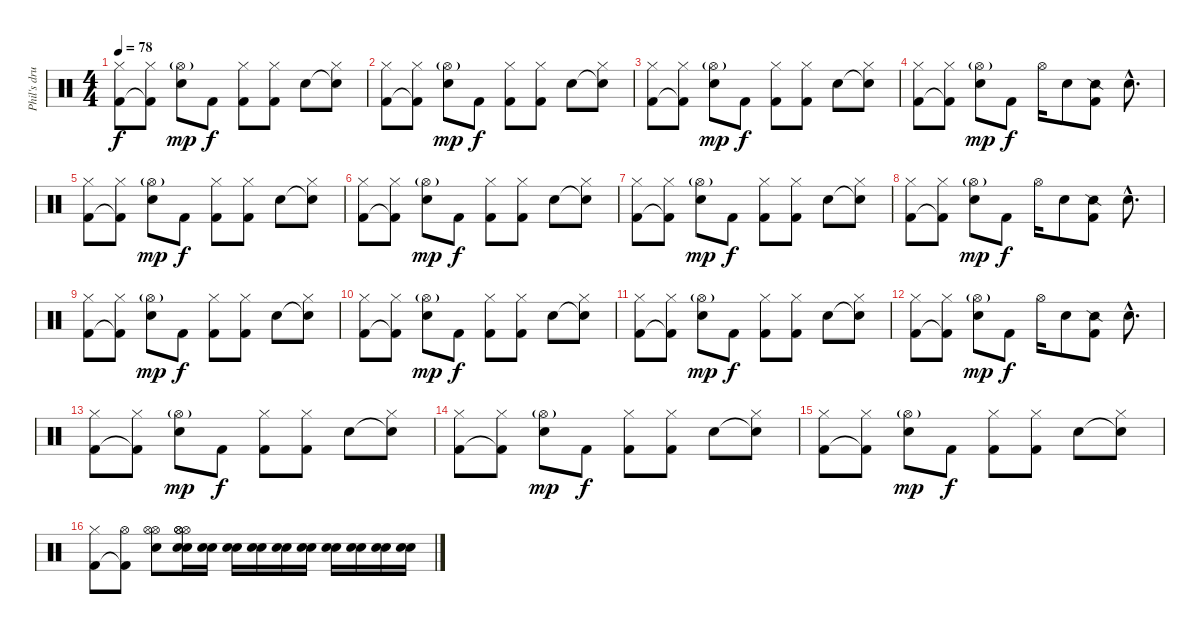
\track ("Phil's drums" "Phil's dru") {instrument percussion}
\staff {score}
\articulation defaults
\ts (4 4)
\tempo 78
\clef neutral
\ks c
("Kick (hit) 2" "Hi-Hat (closed)").8{dy f} ("Kick (hit) 2"{t} "Hi-Hat (closed)").8 ("Snare (hit) 2" "Hi-Hat (open)"{g}).8{dy mp} "Kick (hit) 2".8{dy f} ("Kick (hit) 2" "Hi-Hat (closed)").8 ("Kick (hit) 2" "Hi-Hat (closed)").8 "Snare (hit) 2".8 ("Snare (hit) 2"{t} "Hi-Hat (closed)").8 |
("Kick (hit) 2" "Hi-Hat (closed)").8 ("Kick (hit) 2"{t} "Hi-Hat (closed)").8 ("Snare (hit) 2" "Hi-Hat (open)"{g}).8{dy mp} "Kick (hit) 2".8{dy f} ("Kick (hit) 2" "Hi-Hat (closed)").8 ("Kick (hit) 2" "Hi-Hat (closed)").8 "Snare (hit) 2".8 ("Snare (hit) 2"{t} "Hi-Hat (closed)").8 |
("Kick (hit) 2" "Hi-Hat (closed)").8 ("Kick (hit) 2"{t} "Hi-Hat (closed)").8 ("Snare (hit) 2" "Hi-Hat (open)"{g}).8{dy mp} "Kick (hit) 2".8{dy f} ("Kick (hit) 2" "Hi-Hat (closed)").8 ("Kick (hit) 2" "Hi-Hat (closed)").8 "Snare (hit) 2".8 ("Snare (hit) 2"{t} "Hi-Hat (closed)").8 |
("Kick (hit) 2" "Hi-Hat (closed)").8 ("Kick (hit) 2"{t} "Hi-Hat (closed)").8 ("Snare (hit) 2" "Hi-Hat (open)"{g}).8{dy mp} "Kick (hit) 2".8{dy f} "Hi-Hat (open)".16 "Snare (hit) 2".8 ("Snare (side stick) 2" "Kick (hit) 2").8 "Snare (hit) 2"{hac}.8{d} |
("Kick (hit) 2" "Hi-Hat (closed)").8 ("Kick (hit) 2"{t} "Hi-Hat (closed)").8 ("Snare (hit) 2" "Hi-Hat (open)"{g}).8{dy mp} "Kick (hit) 2".8{dy f} ("Kick (hit) 2" "Hi-Hat (closed)").8 ("Kick (hit) 2" "Hi-Hat (closed)").8 "Snare (hit) 2".8 ("Snare (hit) 2"{t} "Hi-Hat (closed)").8 |
("Kick (hit) 2" "Hi-Hat (closed)").8 ("Kick (hit) 2"{t} "Hi-Hat (closed)").8 ("Snare (hit) 2" "Hi-Hat (open)"{g}).8{dy mp} "Kick (hit) 2".8{dy f} ("Kick (hit) 2" "Hi-Hat (closed)").8 ("Kick (hit) 2" "Hi-Hat (closed)").8 "Snare (hit) 2".8 ("Snare (hit) 2"{t} "Hi-Hat (closed)").8 |
("Kick (hit) 2" "Hi-Hat (closed)").8 ("Kick (hit) 2"{t} "Hi-Hat (closed)").8 ("Snare (hit) 2" "Hi-Hat (open)"{g}).8{dy mp} "Kick (hit) 2".8{dy f} ("Kick (hit) 2" "Hi-Hat (closed)").8 ("Kick (hit) 2" "Hi-Hat (closed)").8 "Snare (hit) 2".8 ("Snare (hit) 2"{t} "Hi-Hat (closed)").8 |
("Kick (hit) 2" "Hi-Hat (closed)").8 ("Kick (hit) 2"{t} "Hi-Hat (closed)").8 ("Snare (hit) 2" "Hi-Hat (open)"{g}).8{dy mp} "Kick (hit) 2".8{dy f} "Hi-Hat (open)".16 "Snare (hit) 2".8 ("Snare (side stick) 2" "Kick (hit) 2").8 "Snare (hit) 2"{hac}.8{d} |
("Kick (hit) 2" "Hi-Hat (closed)").8 ("Kick (hit) 2"{t} "Hi-Hat (closed)").8 ("Snare (hit) 2" "Hi-Hat (open)"{g}).8{dy mp} "Kick (hit) 2".8{dy f} ("Kick (hit) 2" "Hi-Hat (closed)").8 ("Kick (hit) 2" "Hi-Hat (closed)").8 "Snare (hit) 2".8 ("Snare (hit) 2"{t} "Hi-Hat (closed)").8 |
("Kick (hit) 2" "Hi-Hat (closed)").8 ("Kick (hit) 2"{t} "Hi-Hat (closed)").8 ("Snare (hit) 2" "Hi-Hat (open)"{g}).8{dy mp} "Kick (hit) 2".8{dy f} ("Kick (hit) 2" "Hi-Hat (closed)").8 ("Kick (hit) 2" "Hi-Hat (closed)").8 "Snare (hit) 2".8 ("Snare (hit) 2"{t} "Hi-Hat (closed)").8 |
("Kick (hit) 2" "Hi-Hat (closed)").8 ("Kick (hit) 2"{t} "Hi-Hat (closed)").8 ("Snare (hit) 2" "Hi-Hat (open)"{g}).8{dy mp} "Kick (hit) 2".8{dy f} ("Kick (hit) 2" "Hi-Hat (closed)").8 ("Kick (hit) 2" "Hi-Hat (closed)").8 "Snare (hit) 2".8 ("Snare (hit) 2"{t} "Hi-Hat (closed)").8 |
("Kick (hit) 2" "Hi-Hat (closed)").8 ("Kick (hit) 2"{t} "Hi-Hat (closed)").8 ("Snare (hit) 2" "Hi-Hat (open)"{g}).8{dy mp} "Kick (hit) 2".8{dy f} "Hi-Hat (open)".16 "Snare (hit) 2".8 ("Snare (side stick) 2" "Kick (hit) 2").8 "Snare (hit) 2"{hac}.8{d} |
("Kick (hit) 2" "Hi-Hat (closed)").8 ("Kick (hit) 2"{t} "Hi-Hat (closed)").8 ("Snare (hit) 2" "Hi-Hat (open)"{g}).8{dy mp} "Kick (hit) 2".8{dy f} ("Kick (hit) 2" "Hi-Hat (closed)").8 ("Kick (hit) 2" "Hi-Hat (closed)").8 "Snare (hit) 2".8 ("Snare (hit) 2"{t} "Hi-Hat (closed)").8 |
("Kick (hit) 2" "Hi-Hat (closed)").8 ("Kick (hit) 2"{t} "Hi-Hat (closed)").8 ("Snare (hit) 2" "Hi-Hat (open)"{g}).8{dy mp} "Kick (hit) 2".8{dy f} ("Kick (hit) 2" "Hi-Hat (closed)").8 ("Kick (hit) 2" "Hi-Hat (closed)").8 "Snare (hit) 2".8 ("Snare (hit) 2"{t} "Hi-Hat (closed)").8 |
("Kick (hit) 2" "Hi-Hat (closed)").8 ("Kick (hit) 2"{t} "Hi-Hat (closed)").8 ("Snare (hit) 2" "Hi-Hat (open)"{g}).8{dy mp} "Kick (hit) 2".8{dy f} ("Kick (hit) 2" "Hi-Hat (closed)").8 ("Kick (hit) 2" "Hi-Hat (closed)").8 "Snare (hit) 2".8 ("Snare (hit) 2"{t} "Hi-Hat (closed)").8 |
("Kick (hit) 2" "Hi-Hat (closed)").8 ("Kick (hit) 2"{t} "Hi-Hat (open)").8 ("Snare (hit) 2" "Hi-Hat (open)" "Hi-Hat (open)").8 ("Snare (hit) 2" "Snare (hit) 2" "Hi-Hat (open)" "Hi-Hat (open)" "Hi-Hat (open)").16 ("Snare (hit) 2" "Snare (hit) 2").16{volume 16} ("Snare (hit) 2" "Snare (hit) 2").16 ("Snare (hit) 2" "Snare (hit) 2").16 ("Snare (hit) 2" "Snare (hit) 2").16 ("Snare (hit) 2" "Snare (hit) 2").16 ("Snare (hit) 2" "Snare (hit) 2").16 ("Snare (hit) 2" "Snare (hit) 2").16 ("Snare (hit) 2" "Snare (hit) 2").16 ("Snare (hit) 2" "Snare (hit) 2").16
